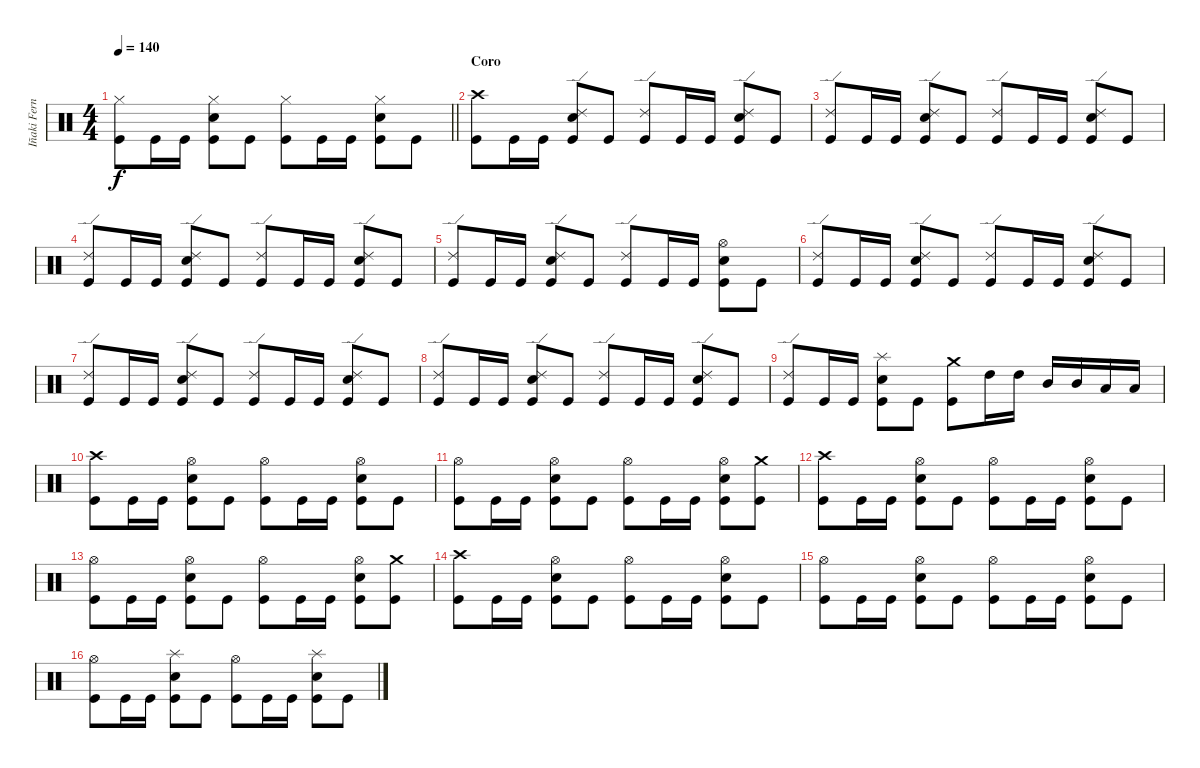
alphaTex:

\track ("Iñaki Fernández" "Iñaki Fern") {instrument percussion}
\staff {score}
\articulation defaults
\ts (4 4)
\tempo 140
\clef neutral
\barLineRight lightlight
\ks c
("Hi-Hat (closed)" "Kick (hit)").8{dy f} "Kick (hit)".16 "Kick (hit)".16 ("Hi-Hat (closed)" "Snare (hit) 2" "Kick (hit)").8 "Kick (hit)".8 ("Hi-Hat (closed)" "Kick (hit)").8 "Kick (hit)".16 "Kick (hit)".16 ("Hi-Hat (closed)" "Snare (hit) 2" "Kick (hit)").8 "Kick (hit)".8 |
\section ("" "Coro")
("Crash high (hit)" "Kick (hit)").8 "Kick (hit)".16 "Kick (hit)".16 ("Ride (edge) 2" "Snare (hit) 2" "Kick (hit)").8 "Kick (hit)".8 ("Ride (edge) 2" "Kick (hit)").8 "Kick (hit)".16 "Kick (hit)".16 ("Ride (edge) 2" "Snare (hit) 2" "Kick (hit)").8 "Kick (hit)".8 |
("Ride (edge) 2" "Kick (hit)").8 "Kick (hit)".16 "Kick (hit)".16 ("Ride (edge) 2" "Snare (hit) 2" "Kick (hit)").8 "Kick (hit)".8 ("Ride (edge) 2" "Kick (hit)").8 "Kick (hit)".16 "Kick (hit)".16 ("Ride (edge) 2" "Snare (hit) 2" "Kick (hit)").8 "Kick (hit)".8 |
("Ride (edge) 2" "Kick (hit)").8 "Kick (hit)".16 "Kick (hit)".16 ("Ride (edge) 2" "Snare (hit) 2" "Kick (hit)").8 "Kick (hit)".8 ("Ride (edge) 2" "Kick (hit)").8 "Kick (hit)".16 "Kick (hit)".16 ("Ride (edge) 2" "Snare (hit) 2" "Kick (hit)").8 "Kick (hit)".8 |
("Ride (edge) 2" "Kick (hit)").8 "Kick (hit)".16 "Kick (hit)".16 ("Ride (edge) 2" "Snare (hit) 2" "Kick (hit)").8 "Kick (hit)".8 ("Ride (edge) 2" "Kick (hit)").8 "Kick (hit)".16 "Kick (hit)".16 ("Hi-Hat (open)" "Snare (hit) 2" "Kick (hit)").8 "Kick (hit)".8 |
("Ride (edge) 2" "Kick (hit)").8 "Kick (hit)".16 "Kick (hit)".16 ("Ride (edge) 2" "Snare (hit) 2" "Kick (hit)").8 "Kick (hit)".8 ("Ride (edge) 2" "Kick (hit)").8 "Kick (hit)".16 "Kick (hit)".16 ("Ride (edge) 2" "Snare (hit) 2" "Kick (hit)").8 "Kick (hit)".8 |
("Ride (edge) 2" "Kick (hit)").8 "Kick (hit)".16 "Kick (hit)".16 ("Ride (edge) 2" "Snare (hit) 2" "Kick (hit)").8 "Kick (hit)".8 ("Ride (edge) 2" "Kick (hit)").8 "Kick (hit)".16 "Kick (hit)".16 ("Ride (edge) 2" "Snare (hit) 2" "Kick (hit)").8 "Kick (hit)".8 |
("Ride (edge) 2" "Kick (hit)").8 "Kick (hit)".16 "Kick (hit)".16 ("Ride (edge) 2" "Snare (hit) 2" "Kick (hit)").8 "Kick (hit)".8 ("Ride (edge) 2" "Kick (hit)").8 "Kick (hit)".16 "Kick (hit)".16 ("Ride (edge) 2" "Snare (hit) 2" "Kick (hit)").8 "Kick (hit)".8 |
("Ride (edge) 2" "Kick (hit)").8 "Kick (hit)".16 "Kick (hit)".16 ("Snare (hit) 2" "Splash (hit)" "Kick (hit)").8 "Kick (hit)".8 ("Crash medium (hit)" "Kick (hit)").8 "High Tom (hit)".16 "High Tom (hit)".16 "Mid Tom (hit)".16 "Mid Tom (hit)".16 "Low Tom (hit)".16 "Low Tom (hit)".16 |
("Crash high (hit)" "Kick (hit)").8 "Kick (hit)".16 "Kick (hit)".16 ("Hi-Hat (open)" "Snare (hit) 2" "Kick (hit)").8 "Kick (hit)".8 ("Hi-Hat (open)" "Kick (hit)").8 "Kick (hit)".16 "Kick (hit)".16 ("Hi-Hat (open)" "Snare (hit) 2" "Kick (hit)").8 "Kick (hit)".8 |
("Hi-Hat (open)" "Kick (hit)").8 "Kick (hit)".16 "Kick (hit)".16 ("Hi-Hat (open)" "Snare (hit) 2" "Kick (hit)").8 "Kick (hit)".8 ("Hi-Hat (open)" "Kick (hit)").8 "Kick (hit)".16 "Kick (hit)".16 ("Hi-Hat (open)" "Snare (hit) 2" "Kick (hit)").8 ("Crash medium (hit)" "Kick (hit)").8 |
("Crash high (hit)" "Kick (hit)").8 "Kick (hit)".16 "Kick (hit)".16 ("Hi-Hat (open)" "Snare (hit) 2" "Kick (hit)").8 "Kick (hit)".8 ("Hi-Hat (open)" "Kick (hit)").8 "Kick (hit)".16 "Kick (hit)".16 ("Hi-Hat (open)" "Snare (hit) 2" "Kick (hit)").8 "Kick (hit)".8 |
("Hi-Hat (open)" "Kick (hit)").8 "Kick (hit)".16 "Kick (hit)".16 ("Hi-Hat (open)" "Snare (hit) 2" "Kick (hit)").8 "Kick (hit)".8 ("Hi-Hat (open)" "Kick (hit)").8 "Kick (hit)".16 "Kick (hit)".16 ("Hi-Hat (open)" "Snare (hit) 2" "Kick (hit)").8 ("Crash medium (hit)" "Kick (hit)").8 |
("Crash high (hit)" "Kick (hit)").8 "Kick (hit)".16 "Kick (hit)".16 ("Hi-Hat (open)" "Snare (hit) 2" "Kick (hit)").8 "Kick (hit)".8 ("Hi-Hat (open)" "Kick (hit)").8 "Kick (hit)".16 "Kick (hit)".16 ("Hi-Hat (open)" "Snare (hit) 2" "Kick (hit)").8 "Kick (hit)".8 |
("Hi-Hat (open)" "Kick (hit)").8 "Kick (hit)".16 "Kick (hit)".16 ("Hi-Hat (open)" "Snare (hit) 2" "Kick (hit)").8 "Kick (hit)".8 ("Hi-Hat (open)" "Kick (hit)").8 "Kick (hit)".16 "Kick (hit)".16 ("Hi-Hat (open)" "Snare (hit) 2" "Kick (hit)").8 "Kick (hit)".8 |
("Hi-Hat (open)" "Kick (hit)").8 "Kick (hit)".16 "Kick (hit)".16 ("Snare (hit) 2" "Splash (hit)" "Kick (hit)").8 "Kick (hit)".8 ("Hi-Hat (open)" "Kick (hit)").8 "Kick (hit)".16 "Kick (hit)".16 ("Snare (hit) 2" "Splash (hit)" "Kick (hit)").8 "Kick (hit)".8
